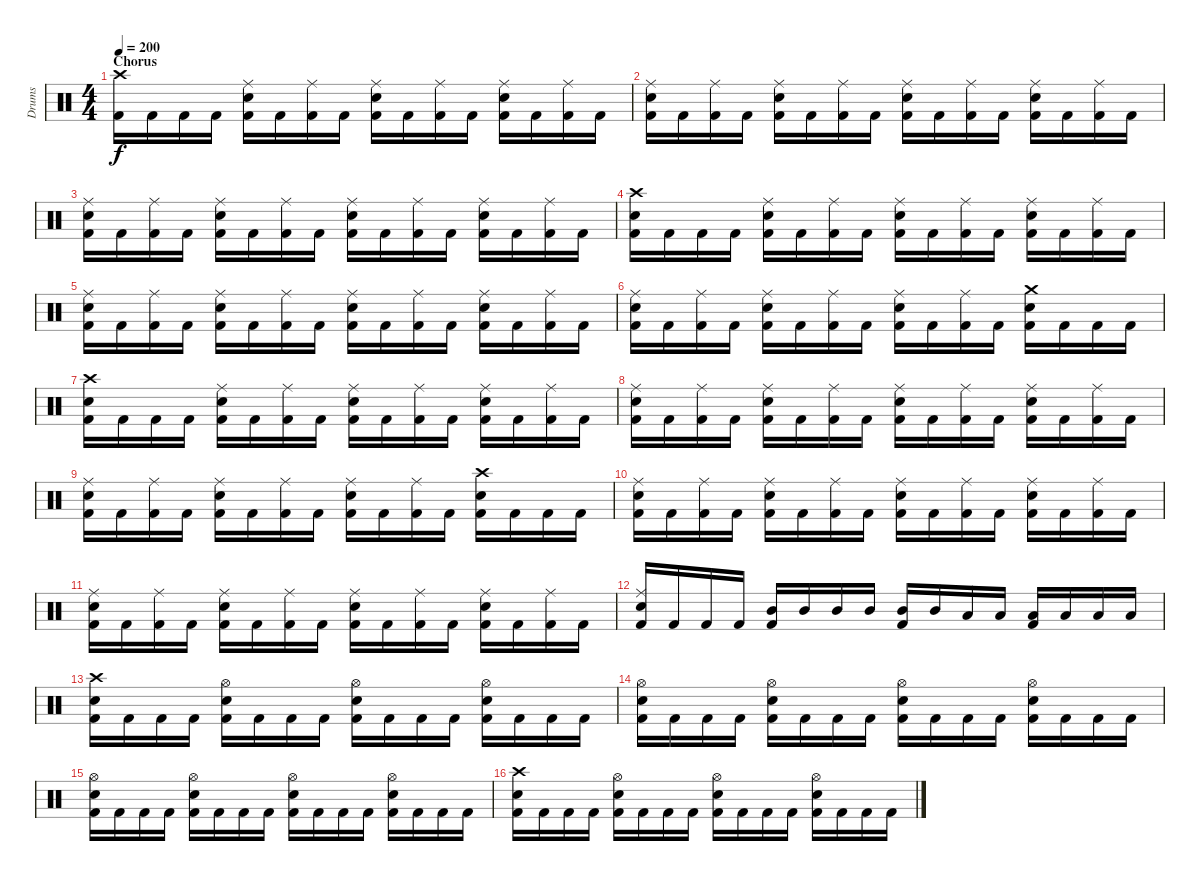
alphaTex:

\track ("Drums" "Drums") {instrument percussion}
\staff {score}
\articulation defaults
\ts (4 4)
\section ("" "Chorus")
\tempo 200
\clef neutral
\ks c
("Crash high (hit)" "Kick (hit) 2").16{dy f} "Kick (hit) 2".16 "Kick (hit) 2".16 "Kick (hit) 2".16 ("Ride (middle)" "Snare (hit) 2" "Kick (hit) 2").16 "Kick (hit) 2".16 ("Ride (middle)" "Kick (hit) 2").16 "Kick (hit) 2".16 ("Ride (middle)" "Snare (hit) 2" "Kick (hit) 2").16 "Kick (hit) 2".16 ("Ride (middle)" "Kick (hit) 2").16 "Kick (hit) 2".16 ("Ride (middle)" "Snare (hit) 2" "Kick (hit) 2").16 "Kick (hit) 2".16 ("Ride (middle)" "Kick (hit) 2").16 "Kick (hit) 2".16 |
("Ride (middle)" "Snare (hit) 2" "Kick (hit) 2").16 "Kick (hit) 2".16 ("Ride (middle)" "Kick (hit) 2").16 "Kick (hit) 2".16 ("Ride (middle)" "Snare (hit) 2" "Kick (hit) 2").16 "Kick (hit) 2".16 ("Ride (middle)" "Kick (hit) 2").16 "Kick (hit) 2".16 ("Ride (middle)" "Snare (hit) 2" "Kick (hit) 2").16 "Kick (hit) 2".16 ("Ride (middle)" "Kick (hit) 2").16 "Kick (hit) 2".16 ("Ride (middle)" "Snare (hit) 2" "Kick (hit) 2").16 "Kick (hit) 2".16 ("Ride (middle)" "Kick (hit) 2").16 "Kick (hit) 2".16 |
("Ride (middle)" "Snare (hit) 2" "Kick (hit) 2").16 "Kick (hit) 2".16 ("Ride (middle)" "Kick (hit) 2").16 "Kick (hit) 2".16 ("Ride (middle)" "Snare (hit) 2" "Kick (hit) 2").16 "Kick (hit) 2".16 ("Ride (middle)" "Kick (hit) 2").16 "Kick (hit) 2".16 ("Ride (middle)" "Snare (hit) 2" "Kick (hit) 2").16 "Kick (hit) 2".16 ("Ride (middle)" "Kick (hit) 2").16 "Kick (hit) 2".16 ("Ride (middle)" "Snare (hit) 2" "Kick (hit) 2").16 "Kick (hit) 2".16 ("Ride (middle)" "Kick (hit) 2").16 "Kick (hit) 2".16 |
("Crash high (hit)" "Snare (hit) 2" "Kick (hit) 2").16 "Kick (hit) 2".16 "Kick (hit) 2".16 "Kick (hit) 2".16 ("Ride (middle)" "Snare (hit) 2" "Kick (hit) 2").16 "Kick (hit) 2".16 ("Ride (middle)" "Kick (hit) 2").16 "Kick (hit) 2".16 ("Ride (middle)" "Snare (hit) 2" "Kick (hit) 2").16 "Kick (hit) 2".16 ("Ride (middle)" "Kick (hit) 2").16 "Kick (hit) 2".16 ("Ride (middle)" "Snare (hit) 2" "Kick (hit) 2").16 "Kick (hit) 2".16 ("Ride (middle)" "Kick (hit) 2").16 "Kick (hit) 2".16 |
("Ride (middle)" "Snare (hit) 2" "Kick (hit) 2").16 "Kick (hit) 2".16 ("Ride (middle)" "Kick (hit) 2").16 "Kick (hit) 2".16 ("Ride (middle)" "Snare (hit) 2" "Kick (hit) 2").16 "Kick (hit) 2".16 ("Ride (middle)" "Kick (hit) 2").16 "Kick (hit) 2".16 ("Ride (middle)" "Snare (hit) 2" "Kick (hit) 2").16 "Kick (hit) 2".16 ("Ride (middle)" "Kick (hit) 2").16 "Kick (hit) 2".16 ("Ride (middle)" "Snare (hit) 2" "Kick (hit) 2").16 "Kick (hit) 2".16 ("Ride (middle)" "Kick (hit) 2").16 "Kick (hit) 2".16 |
("Ride (middle)" "Snare (hit) 2" "Kick (hit) 2").16 "Kick (hit) 2".16 ("Ride (middle)" "Kick (hit) 2").16 "Kick (hit) 2".16 ("Ride (middle)" "Snare (hit) 2" "Kick (hit) 2").16 "Kick (hit) 2".16 ("Ride (middle)" "Kick (hit) 2").16 "Kick (hit) 2".16 ("Ride (middle)" "Snare (hit) 2" "Kick (hit) 2").16 "Kick (hit) 2".16 ("Ride (middle)" "Kick (hit) 2").16 "Kick (hit) 2".16 ("Crash medium (hit)" "Snare (hit) 2" "Kick (hit) 2").16 "Kick (hit) 2".16 "Kick (hit) 2".16 "Kick (hit) 2".16 |
("Crash high (hit)" "Snare (hit) 2" "Kick (hit) 2").16 "Kick (hit) 2".16 "Kick (hit) 2".16 "Kick (hit) 2".16 ("Ride (middle)" "Snare (hit) 2" "Kick (hit) 2").16 "Kick (hit) 2".16 ("Ride (middle)" "Kick (hit) 2").16 "Kick (hit) 2".16 ("Ride (middle)" "Snare (hit) 2" "Kick (hit) 2").16 "Kick (hit) 2".16 ("Ride (middle)" "Kick (hit) 2").16 "Kick (hit) 2".16 ("Ride (middle)" "Snare (hit) 2" "Kick (hit) 2").16 "Kick (hit) 2".16 ("Ride (middle)" "Kick (hit) 2").16 "Kick (hit) 2".16 |
("Ride (middle)" "Snare (hit) 2" "Kick (hit) 2").16 "Kick (hit) 2".16 ("Ride (middle)" "Kick (hit) 2").16 "Kick (hit) 2".16 ("Ride (middle)" "Snare (hit) 2" "Kick (hit) 2").16 "Kick (hit) 2".16 ("Ride (middle)" "Kick (hit) 2").16 "Kick (hit) 2".16 ("Ride (middle)" "Snare (hit) 2" "Kick (hit) 2").16 "Kick (hit) 2".16 ("Ride (middle)" "Kick (hit) 2").16 "Kick (hit) 2".16 ("Ride (middle)" "Snare (hit) 2" "Kick (hit) 2").16 "Kick (hit) 2".16 ("Ride (middle)" "Kick (hit) 2").16 "Kick (hit) 2".16 |
("Ride (middle)" "Snare (hit) 2" "Kick (hit) 2").16 "Kick (hit) 2".16 ("Ride (middle)" "Kick (hit) 2").16 "Kick (hit) 2".16 ("Ride (middle)" "Snare (hit) 2" "Kick (hit) 2").16 "Kick (hit) 2".16 ("Ride (middle)" "Kick (hit) 2").16 "Kick (hit) 2".16 ("Ride (middle)" "Snare (hit) 2" "Kick (hit) 2").16 "Kick (hit) 2".16 ("Ride (middle)" "Kick (hit) 2").16 "Kick (hit) 2".16 ("Crash high (hit)" "Snare (hit) 2" "Kick (hit) 2").16 "Kick (hit) 2".16 "Kick (hit) 2".16 "Kick (hit) 2".16 |
("Ride (middle)" "Snare (hit) 2" "Kick (hit) 2").16 "Kick (hit) 2".16 ("Ride (middle)" "Kick (hit) 2").16 "Kick (hit) 2".16 ("Ride (middle)" "Snare (hit) 2" "Kick (hit) 2").16 "Kick (hit) 2".16 ("Ride (middle)" "Kick (hit) 2").16 "Kick (hit) 2".16 ("Ride (middle)" "Snare (hit) 2" "Kick (hit) 2").16 "Kick (hit) 2".16 ("Ride (middle)" "Kick (hit) 2").16 "Kick (hit) 2".16 ("Ride (middle)" "Snare (hit) 2" "Kick (hit) 2").16 "Kick (hit) 2".16 ("Ride (middle)" "Kick (hit) 2").16 "Kick (hit) 2".16 |
("Ride (middle)" "Snare (hit) 2" "Kick (hit) 2").16 "Kick (hit) 2".16 ("Ride (middle)" "Kick (hit) 2").16 "Kick (hit) 2".16 ("Ride (middle)" "Snare (hit) 2" "Kick (hit) 2").16 "Kick (hit) 2".16 ("Ride (middle)" "Kick (hit) 2").16 "Kick (hit) 2".16 ("Ride (middle)" "Snare (hit) 2" "Kick (hit) 2").16 "Kick (hit) 2".16 ("Ride (middle)" "Kick (hit) 2").16 "Kick (hit) 2".16 ("Ride (middle)" "Snare (hit) 2" "Kick (hit) 2").16 "Kick (hit) 2".16 ("Ride (middle)" "Kick (hit) 2").16 "Kick (hit) 2".16 |
("Ride (middle)" "Snare (hit) 2" "Kick (hit) 2").16 "Kick (hit) 2".16 "Kick (hit) 2".16 "Kick (hit) 2".16 ("Mid Tom (hit)" "Kick (hit) 2").16 "Mid Tom (hit)".16 "Mid Tom (hit)".16 "Mid Tom (hit)".16 ("Mid Tom (hit)" "Kick (hit) 2").16 "Mid Tom (hit)".16 "Low Tom (hit)".16 "Low Tom (hit)".16 ("Low Tom (hit)" "Kick (hit) 2").16 "Low Tom (hit)".16 "Low Tom (hit)".16 "Low Tom (hit)".16 |
("Crash high (hit)" "Snare (hit) 2" "Kick (hit) 2").16 "Kick (hit) 2".16 "Kick (hit) 2".16 "Kick (hit) 2".16 ("Hi-Hat (open)" "Snare (hit) 2" "Kick (hit) 2").16 "Kick (hit) 2".16 "Kick (hit) 2".16 "Kick (hit) 2".16 ("Hi-Hat (open)" "Snare (hit) 2" "Kick (hit) 2").16 "Kick (hit) 2".16 "Kick (hit) 2".16 "Kick (hit) 2".16 ("Hi-Hat (open)" "Snare (hit) 2" "Kick (hit) 2").16 "Kick (hit) 2".16 "Kick (hit) 2".16 "Kick (hit) 2".16 |
("Hi-Hat (open)" "Snare (hit) 2" "Kick (hit) 2").16 "Kick (hit) 2".16 "Kick (hit) 2".16 "Kick (hit) 2".16 ("Hi-Hat (open)" "Snare (hit) 2" "Kick (hit) 2").16 "Kick (hit) 2".16 "Kick (hit) 2".16 "Kick (hit) 2".16 ("Hi-Hat (open)" "Snare (hit) 2" "Kick (hit) 2").16 "Kick (hit) 2".16 "Kick (hit) 2".16 "Kick (hit) 2".16 ("Hi-Hat (open)" "Snare (hit) 2" "Kick (hit) 2").16 "Kick (hit) 2".16 "Kick (hit) 2".16 "Kick (hit) 2".16 |
("Hi-Hat (open)" "Snare (hit) 2" "Kick (hit) 2").16 "Kick (hit) 2".16 "Kick (hit) 2".16 "Kick (hit) 2".16 ("Hi-Hat (open)" "Snare (hit) 2" "Kick (hit) 2").16 "Kick (hit) 2".16 "Kick (hit) 2".16 "Kick (hit) 2".16 ("Hi-Hat (open)" "Snare (hit) 2" "Kick (hit) 2").16 "Kick (hit) 2".16 "Kick (hit) 2".16 "Kick (hit) 2".16 ("Hi-Hat (open)" "Snare (hit) 2" "Kick (hit) 2").16 "Kick (hit) 2".16 "Kick (hit) 2".16 "Kick (hit) 2".16 |
("Crash high (hit)" "Snare (hit) 2" "Kick (hit) 2").16 "Kick (hit) 2".16 "Kick (hit) 2".16 "Kick (hit) 2".16 ("Hi-Hat (open)" "Snare (hit) 2" "Kick (hit) 2").16 "Kick (hit) 2".16 "Kick (hit) 2".16 "Kick (hit) 2".16 ("Hi-Hat (open)" "Snare (hit) 2" "Kick (hit) 2").16 "Kick (hit) 2".16 "Kick (hit) 2".16 "Kick (hit) 2".16 ("Hi-Hat (open)" "Snare (hit) 2" "Kick (hit) 2").16 "Kick (hit) 2".16 "Kick (hit) 2".16 "Kick (hit) 2".16
